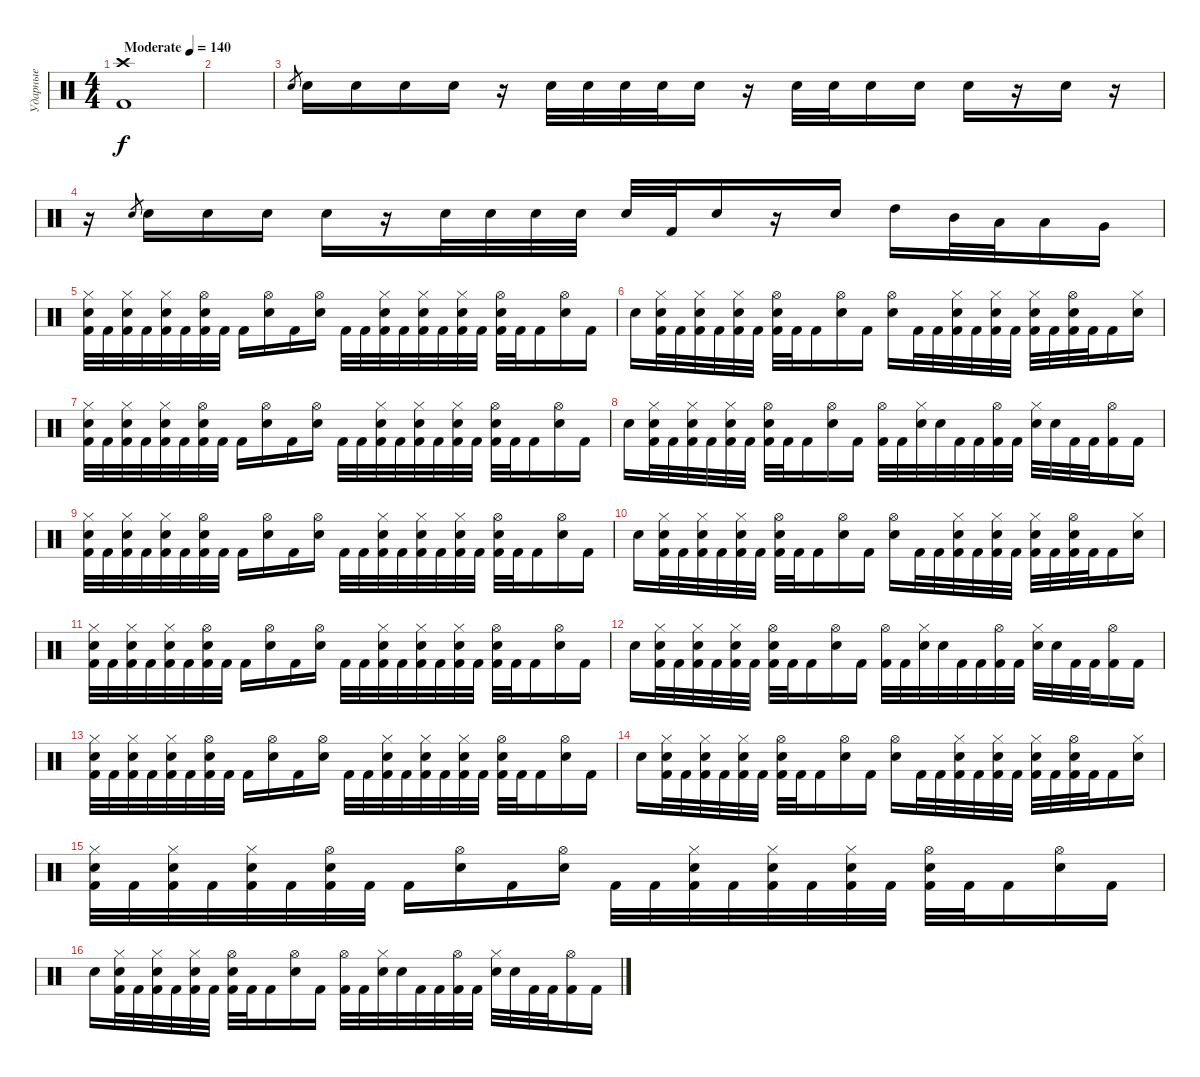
\track ("Ударные" "Ударные") {instrument percussion}
\staff {score}
\articulation defaults
\ts (4 4)
\tempo (140 "Moderate")
\clef neutral
\ks c
("Crash high (hit)" "Kick (hit) 2").1{dy f} |
|
"Electric Snare (hit)".8{gr} "Electric Snare (hit)".16 "Electric Snare (hit)".16 "Electric Snare (hit)".16 "Electric Snare (hit)".16 r.16 "Electric Snare (hit)".32 "Electric Snare (hit)".32 "Electric Snare (hit)".32 "Electric Snare (hit)".32 "Electric Snare (hit)".16 r.16 "Electric Snare (hit)".32 "Electric Snare (hit)".32 "Electric Snare (hit)".16 "Electric Snare (hit)".16 "Electric Snare (hit)".16 r.16 "Electric Snare (hit)".16 r.16 |
r.16 "Electric Snare (hit)".8{gr} "Electric Snare (hit)".16 "Electric Snare (hit)".16 "Electric Snare (hit)".16 "Electric Snare (hit)".16 r.16 "Electric Snare (hit)".32 "Electric Snare (hit)".32 "Electric Snare (hit)".32 "Electric Snare (hit)".32 "Electric Snare (hit)".32 "Kick (hit) 2".32 "Electric Snare (hit)".16 r.16 "Electric Snare (hit)".16 "High Tom (hit)".16 "Mid Tom (hit)".32 "Low Tom (hit)".32 "Low Tom (hit)".16 "Very Low Tom (hit)".16 |
("Hi-Hat (closed)" "Electric Snare (hit)" "Kick (hit) 2").32 "Kick (hit) 2".32 ("Hi-Hat (closed)" "Electric Snare (hit)" "Kick (hit) 2").32 "Kick (hit) 2".32 ("Hi-Hat (closed)" "Electric Snare (hit)" "Kick (hit) 2").32 "Kick (hit) 2".32 ("Hi-Hat (open)" "Electric Snare (hit)" "Kick (hit) 2").32 "Kick (hit) 2".32 "Kick (hit) 2".16 ("Hi-Hat (open)" "Electric Snare (hit)").16 "Kick (hit) 2".16 ("Hi-Hat (open)" "Electric Snare (hit)").16 "Kick (hit) 2".32 "Kick (hit) 2".32 ("Hi-Hat (closed)" "Electric Snare (hit)" "Kick (hit) 2").32 "Kick (hit) 2".32 ("Hi-Hat (closed)" "Electric Snare (hit)" "Kick (hit) 2").32 "Kick (hit) 2".32 ("Hi-Hat (closed)" "Electric Snare (hit)" "Kick (hit) 2").32 "Kick (hit) 2".32 ("Hi-Hat (open)" "Electric Snare (hit)" "Kick (hit) 2").32 "Kick (hit) 2".32 "Kick (hit) 2".16 ("Hi-Hat (open)" "Electric Snare (hit)").16 "Kick (hit) 2".16 |
"Electric Snare (hit)".16 ("Hi-Hat (closed)" "Electric Snare (hit)" "Kick (hit) 2").32 "Kick (hit) 2".32 ("Hi-Hat (closed)" "Electric Snare (hit)" "Kick (hit) 2").32 "Kick (hit) 2".32 ("Hi-Hat (closed)" "Electric Snare (hit)" "Kick (hit) 2").32 "Kick (hit) 2".32 ("Hi-Hat (open)" "Electric Snare (hit)" "Kick (hit) 2").32 "Kick (hit) 2".32 "Kick (hit) 2".16 ("Hi-Hat (open)" "Electric Snare (hit)").16 "Kick (hit) 2".16 ("Hi-Hat (open)" "Electric Snare (hit)").16 "Kick (hit) 2".32 "Kick (hit) 2".32 ("Hi-Hat (closed)" "Electric Snare (hit)" "Kick (hit) 2").32 "Kick (hit) 2".32 ("Hi-Hat (closed)" "Electric Snare (hit)" "Kick (hit) 2").32 "Kick (hit) 2".32 ("Hi-Hat (closed)" "Electric Snare (hit)" "Kick (hit) 2").32 "Kick (hit) 2".32 ("Hi-Hat (open)" "Electric Snare (hit)" "Kick (hit) 2").32 "Kick (hit) 2".32 "Kick (hit) 2".16 ("Hi-Hat (closed)" "Electric Snare (hit)").16 |
("Hi-Hat (closed)" "Electric Snare (hit)" "Kick (hit) 2").32 "Kick (hit) 2".32 ("Hi-Hat (closed)" "Electric Snare (hit)" "Kick (hit) 2").32 "Kick (hit) 2".32 ("Hi-Hat (closed)" "Electric Snare (hit)" "Kick (hit) 2").32 "Kick (hit) 2".32 ("Hi-Hat (open)" "Electric Snare (hit)" "Kick (hit) 2").32 "Kick (hit) 2".32 "Kick (hit) 2".16 ("Hi-Hat (open)" "Electric Snare (hit)").16 "Kick (hit) 2".16 ("Hi-Hat (open)" "Electric Snare (hit)").16 "Kick (hit) 2".32 "Kick (hit) 2".32 ("Hi-Hat (closed)" "Electric Snare (hit)" "Kick (hit) 2").32 "Kick (hit) 2".32 ("Hi-Hat (closed)" "Electric Snare (hit)" "Kick (hit) 2").32 "Kick (hit) 2".32 ("Hi-Hat (closed)" "Electric Snare (hit)" "Kick (hit) 2").32 "Kick (hit) 2".32 ("Hi-Hat (open)" "Electric Snare (hit)" "Kick (hit) 2").32 "Kick (hit) 2".32 "Kick (hit) 2".16 ("Hi-Hat (open)" "Electric Snare (hit)").16 "Kick (hit) 2".16 |
"Electric Snare (hit)".16 ("Hi-Hat (closed)" "Electric Snare (hit)" "Kick (hit) 2").32 "Kick (hit) 2".32 ("Hi-Hat (closed)" "Electric Snare (hit)" "Kick (hit) 2").32 "Kick (hit) 2".32 ("Hi-Hat (closed)" "Electric Snare (hit)" "Kick (hit) 2").32 "Kick (hit) 2".32 ("Hi-Hat (open)" "Electric Snare (hit)" "Kick (hit) 2").32 "Kick (hit) 2".32 "Kick (hit) 2".16 ("Hi-Hat (open)" "Electric Snare (hit)").16 "Kick (hit) 2".16 ("Hi-Hat (open)" "Kick (hit) 2").32 "Kick (hit) 2".32 ("Hi-Hat (closed)" "Electric Snare (hit)").32 "Electric Snare (hit)".32 "Kick (hit) 2".32 "Kick (hit) 2".32 ("Hi-Hat (open)" "Kick (hit) 2").32 "Kick (hit) 2".32 ("Hi-Hat (closed)" "Electric Snare (hit)").32 "Electric Snare (hit)".32 "Kick (hit) 2".32 "Kick (hit) 2".32 ("Hi-Hat (open)" "Kick (hit) 2").16 "Kick (hit) 2".16 |
("Hi-Hat (closed)" "Electric Snare (hit)" "Kick (hit) 2").32 "Kick (hit) 2".32 ("Hi-Hat (closed)" "Electric Snare (hit)" "Kick (hit) 2").32 "Kick (hit) 2".32 ("Hi-Hat (closed)" "Electric Snare (hit)" "Kick (hit) 2").32 "Kick (hit) 2".32 ("Hi-Hat (open)" "Electric Snare (hit)" "Kick (hit) 2").32 "Kick (hit) 2".32 "Kick (hit) 2".16 ("Hi-Hat (open)" "Electric Snare (hit)").16 "Kick (hit) 2".16 ("Hi-Hat (open)" "Electric Snare (hit)").16 "Kick (hit) 2".32 "Kick (hit) 2".32 ("Hi-Hat (closed)" "Electric Snare (hit)" "Kick (hit) 2").32 "Kick (hit) 2".32 ("Hi-Hat (closed)" "Electric Snare (hit)" "Kick (hit) 2").32 "Kick (hit) 2".32 ("Hi-Hat (closed)" "Electric Snare (hit)" "Kick (hit) 2").32 "Kick (hit) 2".32 ("Hi-Hat (open)" "Electric Snare (hit)" "Kick (hit) 2").32 "Kick (hit) 2".32 "Kick (hit) 2".16 ("Hi-Hat (open)" "Electric Snare (hit)").16 "Kick (hit) 2".16 |
"Electric Snare (hit)".16 ("Hi-Hat (closed)" "Electric Snare (hit)" "Kick (hit) 2").32 "Kick (hit) 2".32 ("Hi-Hat (closed)" "Electric Snare (hit)" "Kick (hit) 2").32 "Kick (hit) 2".32 ("Hi-Hat (closed)" "Electric Snare (hit)" "Kick (hit) 2").32 "Kick (hit) 2".32 ("Hi-Hat (open)" "Electric Snare (hit)" "Kick (hit) 2").32 "Kick (hit) 2".32 "Kick (hit) 2".16 ("Hi-Hat (open)" "Electric Snare (hit)").16 "Kick (hit) 2".16 ("Hi-Hat (open)" "Electric Snare (hit)").16 "Kick (hit) 2".32 "Kick (hit) 2".32 ("Hi-Hat (closed)" "Electric Snare (hit)" "Kick (hit) 2").32 "Kick (hit) 2".32 ("Hi-Hat (closed)" "Electric Snare (hit)" "Kick (hit) 2").32 "Kick (hit) 2".32 ("Hi-Hat (closed)" "Electric Snare (hit)" "Kick (hit) 2").32 "Kick (hit) 2".32 ("Hi-Hat (open)" "Electric Snare (hit)" "Kick (hit) 2").32 "Kick (hit) 2".32 "Kick (hit) 2".16 ("Hi-Hat (closed)" "Electric Snare (hit)").16 |
("Hi-Hat (closed)" "Electric Snare (hit)" "Kick (hit) 2").32 "Kick (hit) 2".32 ("Hi-Hat (closed)" "Electric Snare (hit)" "Kick (hit) 2").32 "Kick (hit) 2".32 ("Hi-Hat (closed)" "Electric Snare (hit)" "Kick (hit) 2").32 "Kick (hit) 2".32 ("Hi-Hat (open)" "Electric Snare (hit)" "Kick (hit) 2").32 "Kick (hit) 2".32 "Kick (hit) 2".16 ("Hi-Hat (open)" "Electric Snare (hit)").16 "Kick (hit) 2".16 ("Hi-Hat (open)" "Electric Snare (hit)").16 "Kick (hit) 2".32 "Kick (hit) 2".32 ("Hi-Hat (closed)" "Electric Snare (hit)" "Kick (hit) 2").32 "Kick (hit) 2".32 ("Hi-Hat (closed)" "Electric Snare (hit)" "Kick (hit) 2").32 "Kick (hit) 2".32 ("Hi-Hat (closed)" "Electric Snare (hit)" "Kick (hit) 2").32 "Kick (hit) 2".32 ("Hi-Hat (open)" "Electric Snare (hit)" "Kick (hit) 2").32 "Kick (hit) 2".32 "Kick (hit) 2".16 ("Hi-Hat (open)" "Electric Snare (hit)").16 "Kick (hit) 2".16 |
"Electric Snare (hit)".16 ("Hi-Hat (closed)" "Electric Snare (hit)" "Kick (hit) 2").32 "Kick (hit) 2".32 ("Hi-Hat (closed)" "Electric Snare (hit)" "Kick (hit) 2").32 "Kick (hit) 2".32 ("Hi-Hat (closed)" "Electric Snare (hit)" "Kick (hit) 2").32 "Kick (hit) 2".32 ("Hi-Hat (open)" "Electric Snare (hit)" "Kick (hit) 2").32 "Kick (hit) 2".32 "Kick (hit) 2".16 ("Hi-Hat (open)" "Electric Snare (hit)").16 "Kick (hit) 2".16 ("Hi-Hat (open)" "Kick (hit) 2").32 "Kick (hit) 2".32 ("Hi-Hat (closed)" "Electric Snare (hit)").32 "Electric Snare (hit)".32 "Kick (hit) 2".32 "Kick (hit) 2".32 ("Hi-Hat (open)" "Kick (hit) 2").32 "Kick (hit) 2".32 ("Hi-Hat (closed)" "Electric Snare (hit)").32 "Electric Snare (hit)".32 "Kick (hit) 2".32 "Kick (hit) 2".32 ("Hi-Hat (open)" "Kick (hit) 2").16 "Kick (hit) 2".16 |
("Hi-Hat (closed)" "Electric Snare (hit)" "Kick (hit) 2").32 "Kick (hit) 2".32 ("Hi-Hat (closed)" "Electric Snare (hit)" "Kick (hit) 2").32 "Kick (hit) 2".32 ("Hi-Hat (closed)" "Electric Snare (hit)" "Kick (hit) 2").32 "Kick (hit) 2".32 ("Hi-Hat (open)" "Electric Snare (hit)" "Kick (hit) 2").32 "Kick (hit) 2".32 "Kick (hit) 2".16 ("Hi-Hat (open)" "Electric Snare (hit)").16 "Kick (hit) 2".16 ("Hi-Hat (open)" "Electric Snare (hit)").16 "Kick (hit) 2".32 "Kick (hit) 2".32 ("Hi-Hat (closed)" "Electric Snare (hit)" "Kick (hit) 2").32 "Kick (hit) 2".32 ("Hi-Hat (closed)" "Electric Snare (hit)" "Kick (hit) 2").32 "Kick (hit) 2".32 ("Hi-Hat (closed)" "Electric Snare (hit)" "Kick (hit) 2").32 "Kick (hit) 2".32 ("Hi-Hat (open)" "Electric Snare (hit)" "Kick (hit) 2").32 "Kick (hit) 2".32 "Kick (hit) 2".16 ("Hi-Hat (open)" "Electric Snare (hit)").16 "Kick (hit) 2".16 |
"Electric Snare (hit)".16 ("Hi-Hat (closed)" "Electric Snare (hit)" "Kick (hit) 2").32 "Kick (hit) 2".32 ("Hi-Hat (closed)" "Electric Snare (hit)" "Kick (hit) 2").32 "Kick (hit) 2".32 ("Hi-Hat (closed)" "Electric Snare (hit)" "Kick (hit) 2").32 "Kick (hit) 2".32 ("Hi-Hat (open)" "Electric Snare (hit)" "Kick (hit) 2").32 "Kick (hit) 2".32 "Kick (hit) 2".16 ("Hi-Hat (open)" "Electric Snare (hit)").16 "Kick (hit) 2".16 ("Hi-Hat (open)" "Electric Snare (hit)").16 "Kick (hit) 2".32 "Kick (hit) 2".32 ("Hi-Hat (closed)" "Electric Snare (hit)" "Kick (hit) 2").32 "Kick (hit) 2".32 ("Hi-Hat (closed)" "Electric Snare (hit)" "Kick (hit) 2").32 "Kick (hit) 2".32 ("Hi-Hat (closed)" "Electric Snare (hit)" "Kick (hit) 2").32 "Kick (hit) 2".32 ("Hi-Hat (open)" "Electric Snare (hit)" "Kick (hit) 2").32 "Kick (hit) 2".32 "Kick (hit) 2".16 ("Hi-Hat (closed)" "Electric Snare (hit)").16 |
("Hi-Hat (closed)" "Electric Snare (hit)" "Kick (hit) 2").32 "Kick (hit) 2".32 ("Hi-Hat (closed)" "Electric Snare (hit)" "Kick (hit) 2").32 "Kick (hit) 2".32 ("Hi-Hat (closed)" "Electric Snare (hit)" "Kick (hit) 2").32 "Kick (hit) 2".32 ("Hi-Hat (open)" "Electric Snare (hit)" "Kick (hit) 2").32 "Kick (hit) 2".32 "Kick (hit) 2".16 ("Hi-Hat (open)" "Electric Snare (hit)").16 "Kick (hit) 2".16 ("Hi-Hat (open)" "Electric Snare (hit)").16 "Kick (hit) 2".32 "Kick (hit) 2".32 ("Hi-Hat (closed)" "Electric Snare (hit)" "Kick (hit) 2").32 "Kick (hit) 2".32 ("Hi-Hat (closed)" "Electric Snare (hit)" "Kick (hit) 2").32 "Kick (hit) 2".32 ("Hi-Hat (closed)" "Electric Snare (hit)" "Kick (hit) 2").32 "Kick (hit) 2".32 ("Hi-Hat (open)" "Electric Snare (hit)" "Kick (hit) 2").32 "Kick (hit) 2".32 "Kick (hit) 2".16 ("Hi-Hat (open)" "Electric Snare (hit)").16 "Kick (hit) 2".16 |
"Electric Snare (hit)".16 ("Hi-Hat (closed)" "Electric Snare (hit)" "Kick (hit) 2").32 "Kick (hit) 2".32 ("Hi-Hat (closed)" "Electric Snare (hit)" "Kick (hit) 2").32 "Kick (hit) 2".32 ("Hi-Hat (closed)" "Electric Snare (hit)" "Kick (hit) 2").32 "Kick (hit) 2".32 ("Hi-Hat (open)" "Electric Snare (hit)" "Kick (hit) 2").32 "Kick (hit) 2".32 "Kick (hit) 2".16 ("Hi-Hat (open)" "Electric Snare (hit)").16 "Kick (hit) 2".16 ("Hi-Hat (open)" "Kick (hit) 2").32 "Kick (hit) 2".32 ("Hi-Hat (closed)" "Electric Snare (hit)").32 "Electric Snare (hit)".32 "Kick (hit) 2".32 "Kick (hit) 2".32 ("Hi-Hat (open)" "Kick (hit) 2").32 "Kick (hit) 2".32 ("Hi-Hat (closed)" "Electric Snare (hit)").32 "Electric Snare (hit)".32 "Kick (hit) 2".32 "Kick (hit) 2".32 ("Hi-Hat (open)" "Kick (hit) 2").16 "Kick (hit) 2".16
